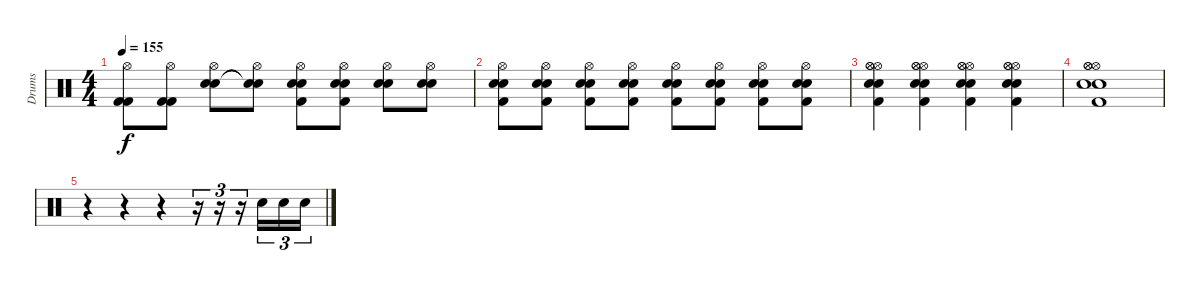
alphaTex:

\track ("Drums" "Drums") {instrument percussion}
\staff {score}
\articulation defaults
\ts (4 4)
\tempo 155
\clef neutral
\ks c
("Hi-Hat (open)" "Kick (hit) 2" "Kick (hit) 2").8{dy f} ("Hi-Hat (open)" "Kick (hit) 2" "Kick (hit) 2").8 ("Hi-Hat (open)" "Electric Snare (hit)" "Electric Snare (hit)").8 ("Hi-Hat (open)" "Snare (hit)"{t} "Snare (hit)"{t}).8 ("Hi-Hat (open)" "Electric Snare (hit)" "Electric Snare (hit)" "Kick (hit) 2").8 ("Hi-Hat (open)" "Electric Snare (hit)" "Electric Snare (hit)" "Kick (hit) 2").8 ("Hi-Hat (open)" "Electric Snare (hit)" "Electric Snare (hit)").8 ("Hi-Hat (open)" "Electric Snare (hit)" "Electric Snare (hit)").8 |
("Hi-Hat (open)" "Electric Snare (hit)" "Electric Snare (hit)" "Kick (hit) 2").8 ("Hi-Hat (open)" "Electric Snare (hit)" "Electric Snare (hit)" "Kick (hit) 2").8 ("Hi-Hat (open)" "Electric Snare (hit)" "Electric Snare (hit)" "Kick (hit) 2").8 ("Hi-Hat (open)" "Electric Snare (hit)" "Electric Snare (hit)" "Kick (hit) 2").8 ("Hi-Hat (open)" "Electric Snare (hit)" "Electric Snare (hit)" "Kick (hit) 2").8 ("Hi-Hat (open)" "Electric Snare (hit)" "Electric Snare (hit)" "Kick (hit) 2").8 ("Hi-Hat (open)" "Electric Snare (hit)" "Electric Snare (hit)" "Kick (hit) 2").8 ("Hi-Hat (open)" "Electric Snare (hit)" "Electric Snare (hit)" "Kick (hit) 2").8 |
("Hi-Hat (open)" "Hi-Hat (open)" "Hi-Hat (open)" "Electric Snare (hit)" "Electric Snare (hit)" "Kick (hit) 2").4 ("Hi-Hat (open)" "Hi-Hat (open)" "Hi-Hat (open)" "Electric Snare (hit)" "Electric Snare (hit)" "Kick (hit) 2").4 ("Hi-Hat (open)" "Hi-Hat (open)" "Hi-Hat (open)" "Electric Snare (hit)" "Electric Snare (hit)" "Kick (hit) 2").4 ("Hi-Hat (open)" "Hi-Hat (open)" "Hi-Hat (open)" "Electric Snare (hit)" "Electric Snare (hit)" "Kick (hit) 2").4 |
("Hi-Hat (open)" "Hi-Hat (open)" "Hi-Hat (open)" "Electric Snare (hit)" "Electric Snare (hit)" "Kick (hit) 2").1 |
r.4 r.4 r.4 r.16{tu (3 2)} r.16{tu (3 2)} r.16{tu (3 2)} "Electric Snare (hit)".16{tu (3 2)} "Electric Snare (hit)".16{tu (3 2)} "Electric Snare (hit)".16{tu (3 2)}
